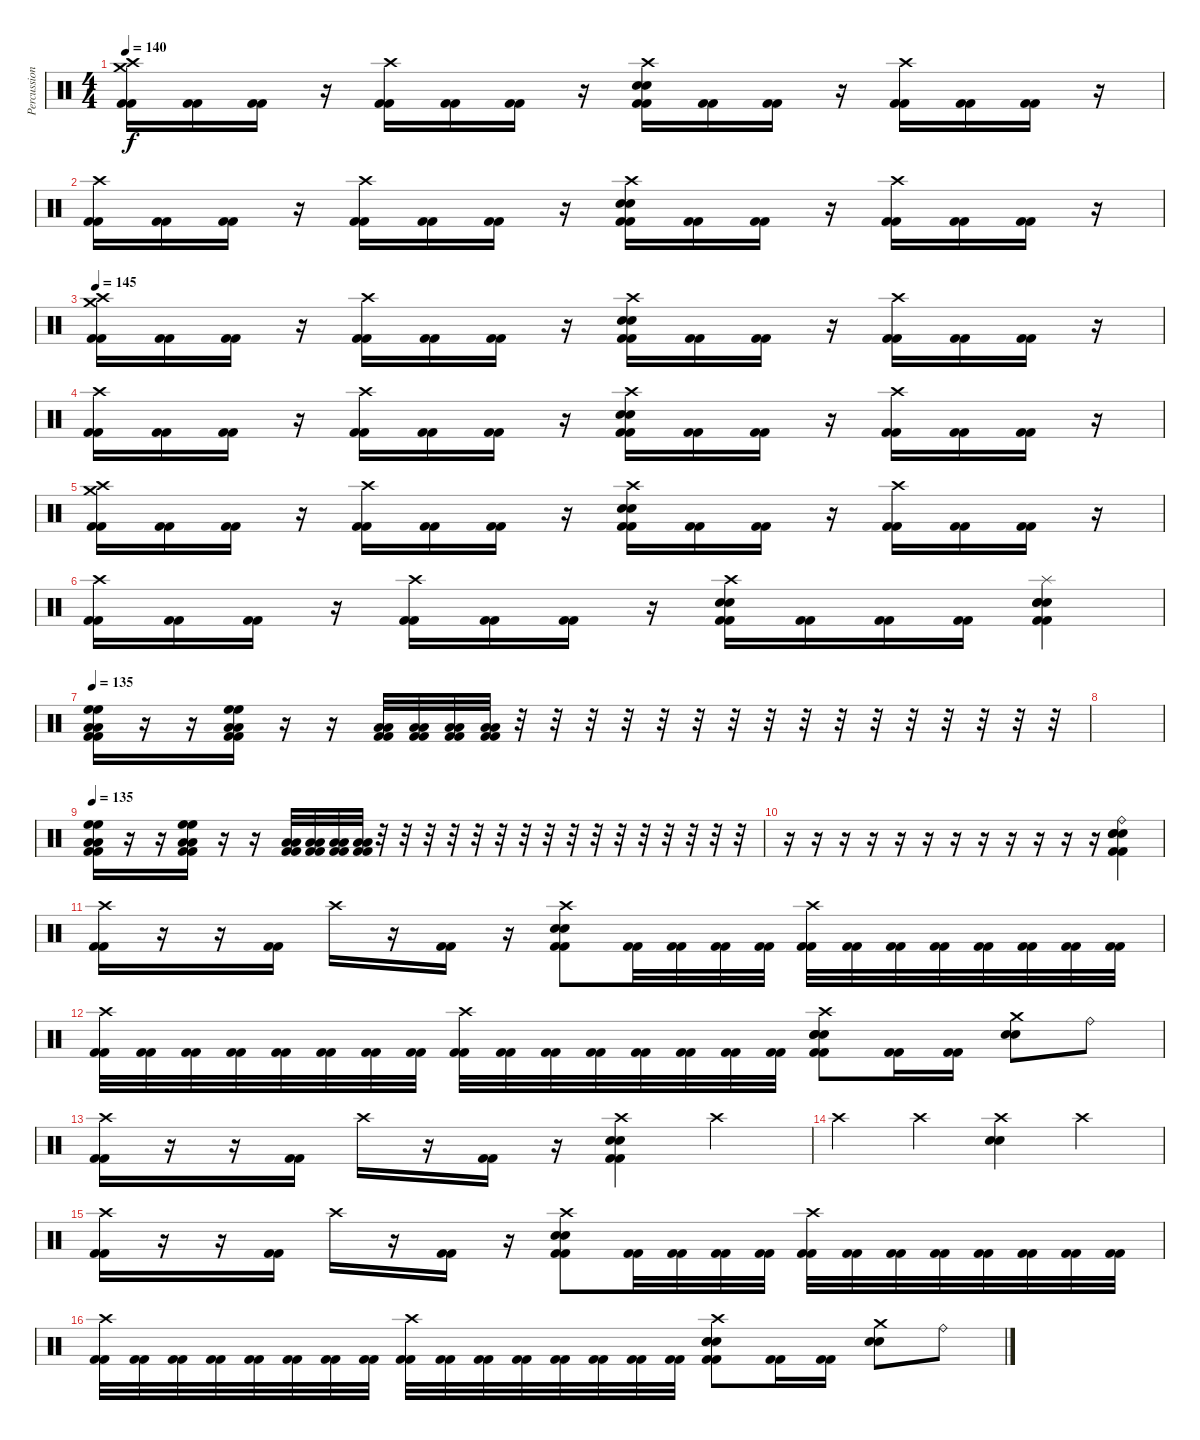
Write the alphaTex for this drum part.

\track ("Percussions" "Percussion") {instrument percussion}
\staff {score}
\articulation defaults
\ts (4 4)
\tempo 140
\clef neutral
\ks c
("Crash high (hit)" "Crash medium (hit)" "Kick (hit) 2" "Kick (hit) 2").16{dy f} ("Kick (hit) 2" "Kick (hit) 2").16 ("Kick (hit) 2" "Kick (hit) 2").16 r.16 ("Crash high (hit)" "Kick (hit) 2" "Kick (hit) 2").16 ("Kick (hit) 2" "Kick (hit) 2").16 ("Kick (hit) 2" "Kick (hit) 2").16 r.16 ("Crash high (hit)" "Electric Snare (hit)" "Electric Snare (hit)" "Kick (hit) 2" "Kick (hit) 2").16 ("Kick (hit) 2" "Kick (hit) 2").16 ("Kick (hit) 2" "Kick (hit) 2").16 r.16 ("Crash high (hit)" "Kick (hit) 2" "Kick (hit) 2").16 ("Kick (hit) 2" "Kick (hit) 2").16 ("Kick (hit) 2" "Kick (hit) 2").16 r.16 |
("Crash high (hit)" "Kick (hit) 2" "Kick (hit) 2").16 ("Kick (hit) 2" "Kick (hit) 2").16 ("Kick (hit) 2" "Kick (hit) 2").16 r.16 ("Crash high (hit)" "Kick (hit) 2" "Kick (hit) 2").16 ("Kick (hit) 2" "Kick (hit) 2").16 ("Kick (hit) 2" "Kick (hit) 2").16 r.16 ("Crash high (hit)" "Electric Snare (hit)" "Electric Snare (hit)" "Kick (hit) 2" "Kick (hit) 2").16 ("Kick (hit) 2" "Kick (hit) 2").16 ("Kick (hit) 2" "Kick (hit) 2").16 r.16 ("Crash high (hit)" "Kick (hit) 2" "Kick (hit) 2").16 ("Kick (hit) 2" "Kick (hit) 2").16 ("Kick (hit) 2" "Kick (hit) 2").16 r.16 |
\tempo 145
("Crash high (hit)" "Crash medium (hit)" "Kick (hit) 2" "Kick (hit) 2").16 ("Kick (hit) 2" "Kick (hit) 2").16 ("Kick (hit) 2" "Kick (hit) 2").16 r.16 ("Crash high (hit)" "Kick (hit) 2" "Kick (hit) 2").16 ("Kick (hit) 2" "Kick (hit) 2").16 ("Kick (hit) 2" "Kick (hit) 2").16 r.16 ("Crash high (hit)" "Electric Snare (hit)" "Electric Snare (hit)" "Kick (hit) 2" "Kick (hit) 2").16 ("Kick (hit) 2" "Kick (hit) 2").16 ("Kick (hit) 2" "Kick (hit) 2").16 r.16 ("Crash high (hit)" "Kick (hit) 2" "Kick (hit) 2").16 ("Kick (hit) 2" "Kick (hit) 2").16 ("Kick (hit) 2" "Kick (hit) 2").16 r.16 |
("Crash high (hit)" "Kick (hit) 2" "Kick (hit) 2").16 ("Kick (hit) 2" "Kick (hit) 2").16 ("Kick (hit) 2" "Kick (hit) 2").16 r.16 ("Crash high (hit)" "Kick (hit) 2" "Kick (hit) 2").16 ("Kick (hit) 2" "Kick (hit) 2").16 ("Kick (hit) 2" "Kick (hit) 2").16 r.16 ("Crash high (hit)" "Electric Snare (hit)" "Electric Snare (hit)" "Kick (hit) 2" "Kick (hit) 2").16 ("Kick (hit) 2" "Kick (hit) 2").16 ("Kick (hit) 2" "Kick (hit) 2").16 r.16 ("Crash high (hit)" "Kick (hit) 2" "Kick (hit) 2").16 ("Kick (hit) 2" "Kick (hit) 2").16 ("Kick (hit) 2" "Kick (hit) 2").16 r.16 |
("Crash high (hit)" "Crash medium (hit)" "Kick (hit) 2" "Kick (hit) 2").16 ("Kick (hit) 2" "Kick (hit) 2").16 ("Kick (hit) 2" "Kick (hit) 2").16 r.16 ("Crash high (hit)" "Kick (hit) 2" "Kick (hit) 2").16 ("Kick (hit) 2" "Kick (hit) 2").16 ("Kick (hit) 2" "Kick (hit) 2").16 r.16 ("Crash high (hit)" "Electric Snare (hit)" "Electric Snare (hit)" "Kick (hit) 2" "Kick (hit) 2").16 ("Kick (hit) 2" "Kick (hit) 2").16 ("Kick (hit) 2" "Kick (hit) 2").16 r.16 ("Crash high (hit)" "Kick (hit) 2" "Kick (hit) 2").16 ("Kick (hit) 2" "Kick (hit) 2").16 ("Kick (hit) 2" "Kick (hit) 2").16 r.16 |
("Crash high (hit)" "Kick (hit) 2" "Kick (hit) 2").16 ("Kick (hit) 2" "Kick (hit) 2").16 ("Kick (hit) 2" "Kick (hit) 2").16 r.16 ("Crash high (hit)" "Kick (hit) 2" "Kick (hit) 2").16 ("Kick (hit) 2" "Kick (hit) 2").16 ("Kick (hit) 2" "Kick (hit) 2").16 r.16 ("Crash high (hit)" "Electric Snare (hit)" "Electric Snare (hit)" "Kick (hit) 2" "Kick (hit) 2").16 ("Kick (hit) 2" "Kick (hit) 2").16 ("Kick (hit) 2" "Kick (hit) 2").16 ("Kick (hit) 2" "Kick (hit) 2").16 ("Splash (hit)" "Electric Snare (hit)" "Electric Snare (hit)" "Electric Snare (hit)" "Kick (hit) 2" "Kick (hit) 2").4 |
\tempo 135
("Kick (hit) 2" "Kick (hit) 2" "Low Tom (hit)" "Low Tom (hit)" "High Floor Tom (hit)" "High Floor Tom (hit)").16 r.16 r.16 ("Kick (hit) 2" "Kick (hit) 2" "Low Tom (hit)" "Low Tom (hit)" "High Floor Tom (hit)" "High Floor Tom (hit)").16 r.16 r.16 ("Kick (hit) 2" "Kick (hit) 2" "Low Tom (hit)" "Low Tom (hit)").32 ("Low Tom (hit)" "Low Tom (hit)" "Kick (hit) 2" "Kick (hit) 2").32 ("Kick (hit) 2" "Kick (hit) 2" "Low Tom (hit)" "Low Tom (hit)").32 ("Low Tom (hit)" "Low Tom (hit)" "Kick (hit) 2" "Kick (hit) 2").32 r.32 r.32 r.32 r.32 r.32 r.32 r.32 r.32 r.32 r.32 r.32 r.32 r.32 r.32 r.32 r.32 |
|
\tempo 135
("Kick (hit) 2" "Kick (hit) 2" "Low Tom (hit)" "Low Tom (hit)" "High Floor Tom (hit)" "High Floor Tom (hit)").16 r.16 r.16 ("Kick (hit) 2" "Kick (hit) 2" "Low Tom (hit)" "Low Tom (hit)" "High Floor Tom (hit)" "High Floor Tom (hit)").16 r.16 r.16 ("Kick (hit) 2" "Kick (hit) 2" "Low Tom (hit)" "Low Tom (hit)").32 ("Low Tom (hit)" "Low Tom (hit)" "Kick (hit) 2" "Kick (hit) 2").32 ("Kick (hit) 2" "Kick (hit) 2" "Low Tom (hit)" "Low Tom (hit)").32 ("Low Tom (hit)" "Low Tom (hit)" "Kick (hit) 2" "Kick (hit) 2").32 r.32 r.32 r.32 r.32 r.32 r.32 r.32 r.32 r.32 r.32 r.32 r.32 r.32 r.32 r.32 r.32 |
r.16 r.16 r.16 r.16 r.16 r.16 r.16 r.16 r.16 r.16 r.16 r.16 ("Ride (bell)" "Electric Snare (hit)" "Electric Snare (hit)" "Electric Snare (hit)" "Kick (hit) 2" "Kick (hit) 2").4 |
("Crash high (hit)" "Kick (hit) 2" "Kick (hit) 2").16 r.16 r.16 ("Kick (hit) 2" "Kick (hit) 2").16 "Crash high (hit)".16 r.16 ("Kick (hit) 2" "Kick (hit) 2").16 r.16 ("Crash high (hit)" "Electric Snare (hit)" "Electric Snare (hit)" "Kick (hit) 2" "Kick (hit) 2").8 ("Kick (hit) 2" "Kick (hit) 2").32 ("Kick (hit) 2" "Kick (hit) 2").32 ("Kick (hit) 2" "Kick (hit) 2").32 ("Kick (hit) 2" "Kick (hit) 2").32 ("Crash high (hit)" "Kick (hit) 2" "Kick (hit) 2").32 ("Kick (hit) 2" "Kick (hit) 2").32 ("Kick (hit) 2" "Kick (hit) 2").32 ("Kick (hit) 2" "Kick (hit) 2").32 ("Kick (hit) 2" "Kick (hit) 2").32 ("Kick (hit) 2" "Kick (hit) 2").32 ("Kick (hit) 2" "Kick (hit) 2").32 ("Kick (hit) 2" "Kick (hit) 2").32 |
("Crash high (hit)" "Kick (hit) 2" "Kick (hit) 2").32 ("Kick (hit) 2" "Kick (hit) 2").32 ("Kick (hit) 2" "Kick (hit) 2").32 ("Kick (hit) 2" "Kick (hit) 2").32 ("Kick (hit) 2" "Kick (hit) 2").32 ("Kick (hit) 2" "Kick (hit) 2").32 ("Kick (hit) 2" "Kick (hit) 2").32 ("Kick (hit) 2" "Kick (hit) 2").32 ("Crash high (hit)" "Kick (hit) 2" "Kick (hit) 2").32 ("Kick (hit) 2" "Kick (hit) 2").32 ("Kick (hit) 2" "Kick (hit) 2").32 ("Kick (hit) 2" "Kick (hit) 2").32 ("Kick (hit) 2" "Kick (hit) 2").32 ("Kick (hit) 2" "Kick (hit) 2").32 ("Kick (hit) 2" "Kick (hit) 2").32 ("Kick (hit) 2" "Kick (hit) 2").32 ("Crash high (hit)" "Electric Snare (hit)" "Electric Snare (hit)" "Electric Snare (hit)" "Kick (hit) 2" "Kick (hit) 2").8 ("Kick (hit) 2" "Kick (hit) 2").16 ("Kick (hit) 2" "Kick (hit) 2").16 ("Crash medium (hit)" "Electric Snare (hit)" "Electric Snare (hit)").8 "Ride (bell)".8 |
("Crash high (hit)" "Kick (hit) 2" "Kick (hit) 2").16 r.16 r.16 ("Kick (hit) 2" "Kick (hit) 2").16 "Crash high (hit)".16 r.16 ("Kick (hit) 2" "Kick (hit) 2").16 r.16 ("Crash high (hit)" "Electric Snare (hit)" "Electric Snare (hit)" "Kick (hit) 2" "Kick (hit) 2").4 "Crash high (hit)".4 |
"Crash high (hit)".4 "Crash high (hit)".4 ("Crash high (hit)" "Electric Snare (hit)" "Electric Snare (hit)").4 "Crash high (hit)".4 |
("Crash high (hit)" "Kick (hit) 2" "Kick (hit) 2").16 r.16 r.16 ("Kick (hit) 2" "Kick (hit) 2").16 "Crash high (hit)".16 r.16 ("Kick (hit) 2" "Kick (hit) 2").16 r.16 ("Crash high (hit)" "Electric Snare (hit)" "Electric Snare (hit)" "Kick (hit) 2" "Kick (hit) 2").8 ("Kick (hit) 2" "Kick (hit) 2").32 ("Kick (hit) 2" "Kick (hit) 2").32 ("Kick (hit) 2" "Kick (hit) 2").32 ("Kick (hit) 2" "Kick (hit) 2").32 ("Crash high (hit)" "Kick (hit) 2" "Kick (hit) 2").32 ("Kick (hit) 2" "Kick (hit) 2").32 ("Kick (hit) 2" "Kick (hit) 2").32 ("Kick (hit) 2" "Kick (hit) 2").32 ("Kick (hit) 2" "Kick (hit) 2").32 ("Kick (hit) 2" "Kick (hit) 2").32 ("Kick (hit) 2" "Kick (hit) 2").32 ("Kick (hit) 2" "Kick (hit) 2").32 |
("Crash high (hit)" "Kick (hit) 2" "Kick (hit) 2").32 ("Kick (hit) 2" "Kick (hit) 2").32 ("Kick (hit) 2" "Kick (hit) 2").32 ("Kick (hit) 2" "Kick (hit) 2").32 ("Kick (hit) 2" "Kick (hit) 2").32 ("Kick (hit) 2" "Kick (hit) 2").32 ("Kick (hit) 2" "Kick (hit) 2").32 ("Kick (hit) 2" "Kick (hit) 2").32 ("Crash high (hit)" "Kick (hit) 2" "Kick (hit) 2").32 ("Kick (hit) 2" "Kick (hit) 2").32 ("Kick (hit) 2" "Kick (hit) 2").32 ("Kick (hit) 2" "Kick (hit) 2").32 ("Kick (hit) 2" "Kick (hit) 2").32 ("Kick (hit) 2" "Kick (hit) 2").32 ("Kick (hit) 2" "Kick (hit) 2").32 ("Kick (hit) 2" "Kick (hit) 2").32 ("Crash high (hit)" "Electric Snare (hit)" "Electric Snare (hit)" "Electric Snare (hit)" "Kick (hit) 2" "Kick (hit) 2").8 ("Kick (hit) 2" "Kick (hit) 2").16 ("Kick (hit) 2" "Kick (hit) 2").16 ("Crash medium (hit)" "Electric Snare (hit)" "Electric Snare (hit)").8 "Ride (bell)".8
